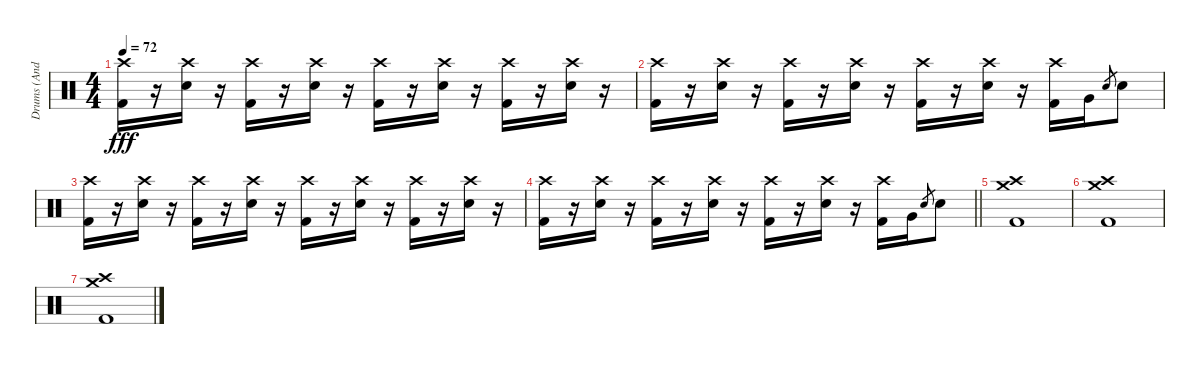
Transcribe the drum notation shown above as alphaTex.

\track ("Drums (Andy)" "Drums (And") {instrument percussion}
\staff {score}
\articulation defaults
\ts (4 4)
\tempo 72
\clef neutral
\ks c
("Crash high (hit)" "Kick (hit) 2").16{dy fff} r.16 ("Crash high (hit)" "Snare (hit) 2").16 r.16 ("Crash high (hit)" "Kick (hit) 2").16 r.16 ("Crash high (hit)" "Snare (hit) 2").16 r.16 ("Crash high (hit)" "Kick (hit) 2").16 r.16 ("Crash high (hit)" "Snare (hit) 2").16 r.16 ("Crash high (hit)" "Kick (hit) 2").16 r.16 ("Crash high (hit)" "Snare (hit) 2").16 r.16 |
("Crash high (hit)" "Kick (hit) 2").16 r.16 ("Crash high (hit)" "Snare (hit) 2").16 r.16 ("Crash high (hit)" "Kick (hit) 2").16 r.16 ("Crash high (hit)" "Snare (hit) 2").16 r.16 ("Crash high (hit)" "Kick (hit) 2").16 r.16 ("Crash high (hit)" "Snare (hit) 2").16 r.16 ("Crash high (hit)" "Kick (hit) 2").16 "Very Low Tom (hit)".16 "Snare (hit) 2".8{gr} "Snare (hit) 2".8 |
("Crash high (hit)" "Kick (hit) 2").16 r.16 ("Crash high (hit)" "Snare (hit) 2").16 r.16 ("Crash high (hit)" "Kick (hit) 2").16 r.16 ("Crash high (hit)" "Snare (hit) 2").16 r.16 ("Crash high (hit)" "Kick (hit) 2").16 r.16 ("Crash high (hit)" "Snare (hit) 2").16 r.16 ("Crash high (hit)" "Kick (hit) 2").16 r.16 ("Crash high (hit)" "Snare (hit) 2").16 r.16 |
\barLineRight lightlight
("Crash high (hit)" "Kick (hit) 2").16 r.16 ("Crash high (hit)" "Snare (hit) 2").16 r.16 ("Crash high (hit)" "Kick (hit) 2").16 r.16 ("Crash high (hit)" "Snare (hit) 2").16 r.16 ("Crash high (hit)" "Kick (hit) 2").16 r.16 ("Crash high (hit)" "Snare (hit) 2").16 r.16 ("Crash high (hit)" "Kick (hit) 2").16 "Very Low Tom (hit)".16 "Snare (hit) 2".8{gr} "Snare (hit) 2".8 |
("Crash high (hit)" "Crash medium (hit)" "Kick (hit) 2").1 |
("Crash high (hit)" "Crash medium (hit)" "Kick (hit) 2").1 |
("Crash high (hit)" "Crash medium (hit)" "Kick (hit) 2").1
